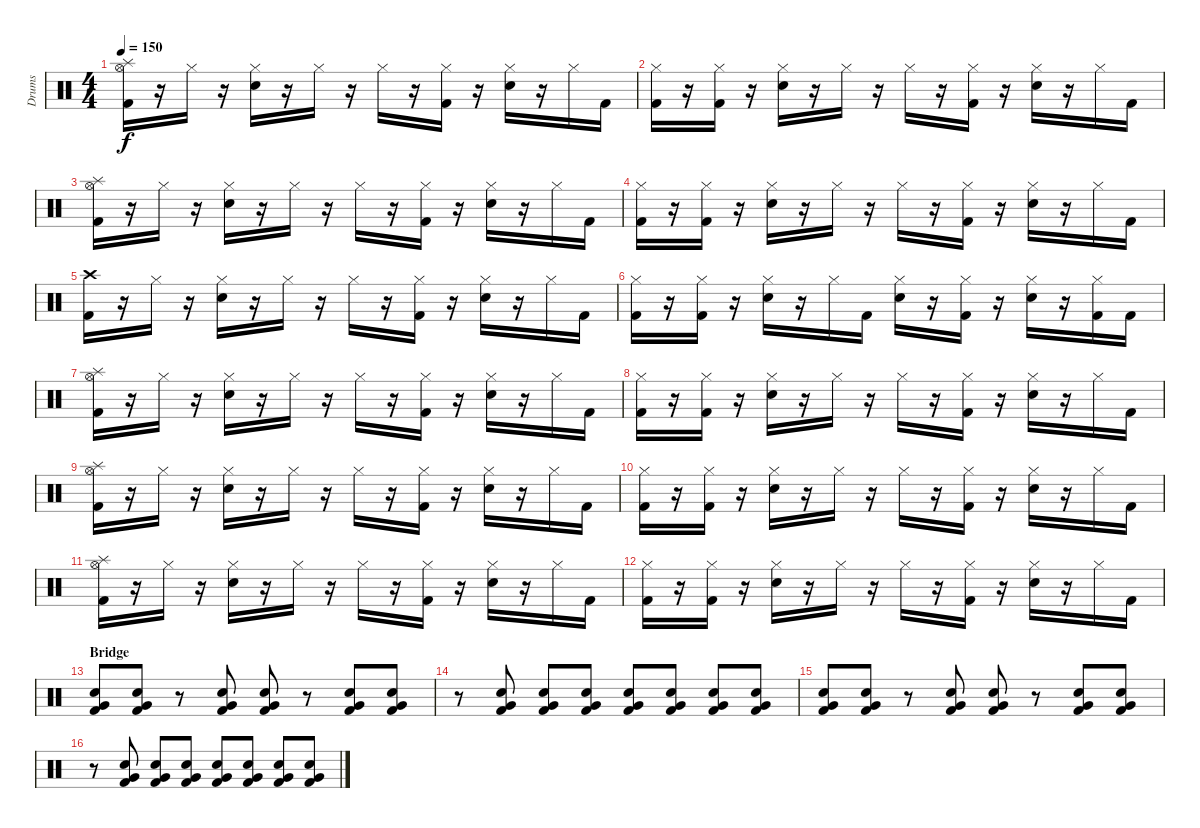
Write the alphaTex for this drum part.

\track ("Drums" "Drums") {instrument percussion}
\staff {score}
\articulation defaults
\ts (4 4)
\tempo 150
\clef neutral
\ks c
("Hi-Hat (open)" "Splash (hit)" "Kick (hit) 2").16{dy f} r.16 "Hi-Hat (closed)".16 r.16 ("Hi-Hat (closed)" "Electric Snare (hit)").16 r.16 "Hi-Hat (closed)".16 r.16 "Hi-Hat (closed)".16 r.16 ("Hi-Hat (closed)" "Kick (hit) 2").16 r.16 ("Hi-Hat (closed)" "Electric Snare (hit)").16 r.16 "Hi-Hat (closed)".16 "Kick (hit) 2".16 |
("Hi-Hat (closed)" "Kick (hit) 2").16 r.16 ("Hi-Hat (closed)" "Kick (hit) 2").16 r.16 ("Hi-Hat (closed)" "Electric Snare (hit)").16 r.16 "Hi-Hat (closed)".16 r.16 "Hi-Hat (closed)".16 r.16 ("Hi-Hat (closed)" "Kick (hit) 2").16 r.16 ("Hi-Hat (closed)" "Electric Snare (hit)").16 r.16 "Hi-Hat (closed)".16 "Kick (hit) 2".16 |
("Hi-Hat (open)" "Splash (hit)" "Kick (hit) 2").16 r.16 "Hi-Hat (closed)".16 r.16 ("Hi-Hat (closed)" "Electric Snare (hit)").16 r.16 "Hi-Hat (closed)".16 r.16 "Hi-Hat (closed)".16 r.16 ("Hi-Hat (closed)" "Kick (hit) 2").16 r.16 ("Hi-Hat (closed)" "Electric Snare (hit)").16 r.16 "Hi-Hat (closed)".16 "Kick (hit) 2".16 |
("Hi-Hat (closed)" "Kick (hit) 2").16 r.16 ("Hi-Hat (closed)" "Kick (hit) 2").16 r.16 ("Hi-Hat (closed)" "Electric Snare (hit)").16 r.16 "Hi-Hat (closed)".16 r.16 "Hi-Hat (closed)".16 r.16 ("Hi-Hat (closed)" "Kick (hit) 2").16 r.16 ("Hi-Hat (closed)" "Electric Snare (hit)").16 r.16 "Hi-Hat (closed)".16 "Kick (hit) 2".16 |
("Crash high (hit)" "Kick (hit) 2").16 r.16 "Hi-Hat (closed)".16 r.16 ("Hi-Hat (closed)" "Electric Snare (hit)").16 r.16 "Hi-Hat (closed)".16 r.16 "Hi-Hat (closed)".16 r.16 ("Hi-Hat (closed)" "Kick (hit) 2").16 r.16 ("Hi-Hat (closed)" "Electric Snare (hit)").16 r.16 "Hi-Hat (closed)".16 "Kick (hit) 2".16 |
("Hi-Hat (closed)" "Kick (hit) 2").16 r.16 ("Hi-Hat (closed)" "Kick (hit) 2").16 r.16 ("Hi-Hat (closed)" "Electric Snare (hit)").16 r.16 "Hi-Hat (closed)".16 "Kick (hit) 2".16 ("Hi-Hat (closed)" "Electric Snare (hit)").16 r.16 ("Hi-Hat (closed)" "Kick (hit) 2").16 r.16 ("Hi-Hat (closed)" "Electric Snare (hit)").16 r.16 ("Hi-Hat (closed)" "Kick (hit) 2").16 "Kick (hit) 2".16 |
("Hi-Hat (open)" "Splash (hit)" "Kick (hit) 2").16 r.16 "Hi-Hat (closed)".16 r.16 ("Hi-Hat (closed)" "Electric Snare (hit)").16 r.16 "Hi-Hat (closed)".16 r.16 "Hi-Hat (closed)".16 r.16 ("Hi-Hat (closed)" "Kick (hit) 2").16 r.16 ("Hi-Hat (closed)" "Electric Snare (hit)").16 r.16 "Hi-Hat (closed)".16 "Kick (hit) 2".16 |
("Hi-Hat (closed)" "Kick (hit) 2").16 r.16 ("Hi-Hat (closed)" "Kick (hit) 2").16 r.16 ("Hi-Hat (closed)" "Electric Snare (hit)").16 r.16 "Hi-Hat (closed)".16 r.16 "Hi-Hat (closed)".16 r.16 ("Hi-Hat (closed)" "Kick (hit) 2").16 r.16 ("Hi-Hat (closed)" "Electric Snare (hit)").16 r.16 "Hi-Hat (closed)".16 "Kick (hit) 2".16 |
("Hi-Hat (open)" "Splash (hit)" "Kick (hit) 2").16 r.16 "Hi-Hat (closed)".16 r.16 ("Hi-Hat (closed)" "Electric Snare (hit)").16 r.16 "Hi-Hat (closed)".16 r.16 "Hi-Hat (closed)".16 r.16 ("Hi-Hat (closed)" "Kick (hit) 2").16 r.16 ("Hi-Hat (closed)" "Electric Snare (hit)").16 r.16 "Hi-Hat (closed)".16 "Kick (hit) 2".16 |
("Hi-Hat (closed)" "Kick (hit) 2").16 r.16 ("Hi-Hat (closed)" "Kick (hit) 2").16 r.16 ("Hi-Hat (closed)" "Electric Snare (hit)").16 r.16 "Hi-Hat (closed)".16 r.16 "Hi-Hat (closed)".16 r.16 ("Hi-Hat (closed)" "Kick (hit) 2").16 r.16 ("Hi-Hat (closed)" "Electric Snare (hit)").16 r.16 "Hi-Hat (closed)".16 "Kick (hit) 2".16 |
("Hi-Hat (open)" "Splash (hit)" "Kick (hit) 2").16 r.16 "Hi-Hat (closed)".16 r.16 ("Hi-Hat (closed)" "Electric Snare (hit)").16 r.16 "Hi-Hat (closed)".16 r.16 "Hi-Hat (closed)".16 r.16 ("Hi-Hat (closed)" "Kick (hit) 2").16 r.16 ("Hi-Hat (closed)" "Electric Snare (hit)").16 r.16 "Hi-Hat (closed)".16 "Kick (hit) 2".16 |
("Hi-Hat (closed)" "Kick (hit) 2").16 r.16 ("Hi-Hat (closed)" "Kick (hit) 2").16 r.16 ("Hi-Hat (closed)" "Electric Snare (hit)").16 r.16 "Hi-Hat (closed)".16 r.16 "Hi-Hat (closed)".16 r.16 ("Hi-Hat (closed)" "Kick (hit) 2").16 r.16 ("Hi-Hat (closed)" "Electric Snare (hit)").16 r.16 "Hi-Hat (closed)".16 "Kick (hit) 2".16 |
\section ("" "Bridge")
("Electric Snare (hit)" "Very Low Tom (hit)" "Kick (hit) 2").8 ("Electric Snare (hit)" "Very Low Tom (hit)" "Kick (hit) 2").8 r.8 ("Electric Snare (hit)" "Very Low Tom (hit)" "Kick (hit) 2").8 ("Electric Snare (hit)" "Very Low Tom (hit)" "Kick (hit) 2").8 r.8 ("Electric Snare (hit)" "Very Low Tom (hit)" "Kick (hit) 2").8 ("Electric Snare (hit)" "Very Low Tom (hit)" "Kick (hit) 2").8 |
r.8 ("Electric Snare (hit)" "Very Low Tom (hit)" "Kick (hit) 2").8 ("Electric Snare (hit)" "Very Low Tom (hit)" "Kick (hit) 2").8 ("Electric Snare (hit)" "Very Low Tom (hit)" "Kick (hit) 2").8 ("Electric Snare (hit)" "Very Low Tom (hit)" "Kick (hit) 2").8 ("Electric Snare (hit)" "Very Low Tom (hit)" "Kick (hit) 2").8 ("Electric Snare (hit)" "Very Low Tom (hit)" "Kick (hit) 2").8 ("Electric Snare (hit)" "Very Low Tom (hit)" "Kick (hit) 2").8 |
("Electric Snare (hit)" "Very Low Tom (hit)" "Kick (hit) 2").8 ("Electric Snare (hit)" "Very Low Tom (hit)" "Kick (hit) 2").8 r.8 ("Electric Snare (hit)" "Very Low Tom (hit)" "Kick (hit) 2").8 ("Electric Snare (hit)" "Very Low Tom (hit)" "Kick (hit) 2").8 r.8 ("Electric Snare (hit)" "Very Low Tom (hit)" "Kick (hit) 2").8 ("Electric Snare (hit)" "Very Low Tom (hit)" "Kick (hit) 2").8 |
r.8 ("Electric Snare (hit)" "Very Low Tom (hit)" "Kick (hit) 2").8 ("Electric Snare (hit)" "Very Low Tom (hit)" "Kick (hit) 2").8 ("Electric Snare (hit)" "Very Low Tom (hit)" "Kick (hit) 2").8 ("Electric Snare (hit)" "Very Low Tom (hit)" "Kick (hit) 2").8 ("Electric Snare (hit)" "Very Low Tom (hit)" "Kick (hit) 2").8 ("Electric Snare (hit)" "Very Low Tom (hit)" "Kick (hit) 2").8 ("Electric Snare (hit)" "Very Low Tom (hit)" "Kick (hit) 2").8
